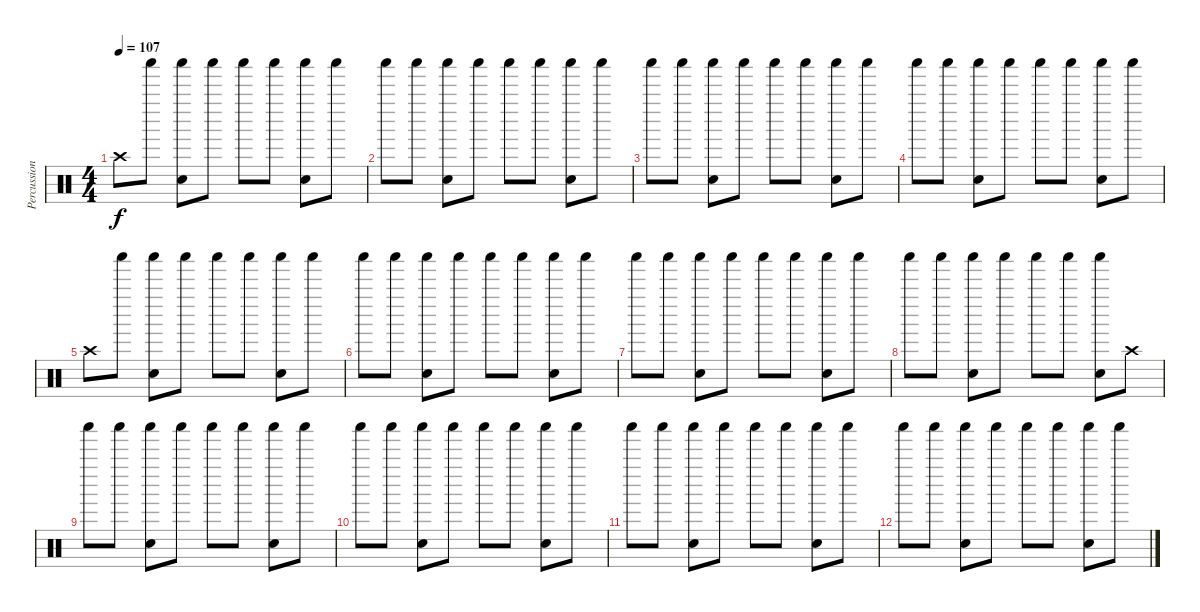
\track ("Percussion" "Percussion") {instrument percussion}
\staff {score}
\articulation defaults
\ts (4 4)
\tempo 107
\clef neutral
\ks c "Crash high (hit)".8{dy f} "Shaker (hit)".8
("Shaker (hit)" "Snare (hit) 2").8 "Shaker (hit)".8 "Shaker (hit)".8 "Shaker (hit)".8 ("Shaker (hit)" "Snare (hit) 2").8 "Shaker (hit)".8 |
"Shaker (hit)".8 "Shaker (hit)".8 ("Shaker (hit)" "Snare (hit) 2").8 "Shaker (hit)".8 "Shaker (hit)".8 "Shaker (hit)".8 ("Shaker (hit)" "Snare (hit) 2").8 "Shaker (hit)".8 |
"Shaker (hit)".8 "Shaker (hit)".8 ("Shaker (hit)" "Snare (hit) 2").8 "Shaker (hit)".8 "Shaker (hit)".8 "Shaker (hit)".8 ("Shaker (hit)" "Snare (hit) 2").8 "Shaker (hit)".8 |
"Shaker (hit)".8 "Shaker (hit)".8 ("Shaker (hit)" "Snare (hit) 2").8 "Shaker (hit)".8 "Shaker (hit)".8 "Shaker (hit)".8 ("Shaker (hit)" "Snare (hit) 2").8 "Shaker (hit)".8 |
"Crash high (hit)".8 "Shaker (hit)".8 ("Shaker (hit)" "Snare (hit) 2").8 "Shaker (hit)".8 "Shaker (hit)".8 "Shaker (hit)".8 ("Shaker (hit)" "Snare (hit) 2").8 "Shaker (hit)".8 |
"Shaker (hit)".8 "Shaker (hit)".8 ("Shaker (hit)" "Snare (hit) 2").8 "Shaker (hit)".8 "Shaker (hit)".8 "Shaker (hit)".8 ("Shaker (hit)" "Snare (hit) 2").8 "Shaker (hit)".8 |
"Shaker (hit)".8 "Shaker (hit)".8 ("Shaker (hit)" "Snare (hit) 2").8 "Shaker (hit)".8 "Shaker (hit)".8 "Shaker (hit)".8 ("Shaker (hit)" "Snare (hit) 2").8 "Shaker (hit)".8 |
"Shaker (hit)".8 "Shaker (hit)".8 ("Shaker (hit)" "Snare (hit) 2").8 "Shaker (hit)".8 "Shaker (hit)".8 "Shaker (hit)".8 ("Shaker (hit)" "Snare (hit) 2").8 "Crash high (hit)".8 |
"Shaker (hit)".8 "Shaker (hit)".8 ("Shaker (hit)" "Snare (hit) 2").8 "Shaker (hit)".8 "Shaker (hit)".8 "Shaker (hit)".8 ("Shaker (hit)" "Snare (hit) 2").8 "Shaker (hit)".8 |
"Shaker (hit)".8 "Shaker (hit)".8 ("Shaker (hit)" "Snare (hit) 2").8 "Shaker (hit)".8 "Shaker (hit)".8 "Shaker (hit)".8 ("Shaker (hit)" "Snare (hit) 2").8 "Shaker (hit)".8 |
"Shaker (hit)".8 "Shaker (hit)".8 ("Shaker (hit)" "Snare (hit) 2").8 "Shaker (hit)".8 "Shaker (hit)".8 "Shaker (hit)".8 ("Shaker (hit)" "Snare (hit) 2").8 "Shaker (hit)".8 |
"Shaker (hit)".8 "Shaker (hit)".8 ("Shaker (hit)" "Snare (hit) 2").8 "Shaker (hit)".8 "Shaker (hit)".8 "Shaker (hit)".8 ("Shaker (hit)" "Snare (hit) 2").8 "Shaker (hit)".8
